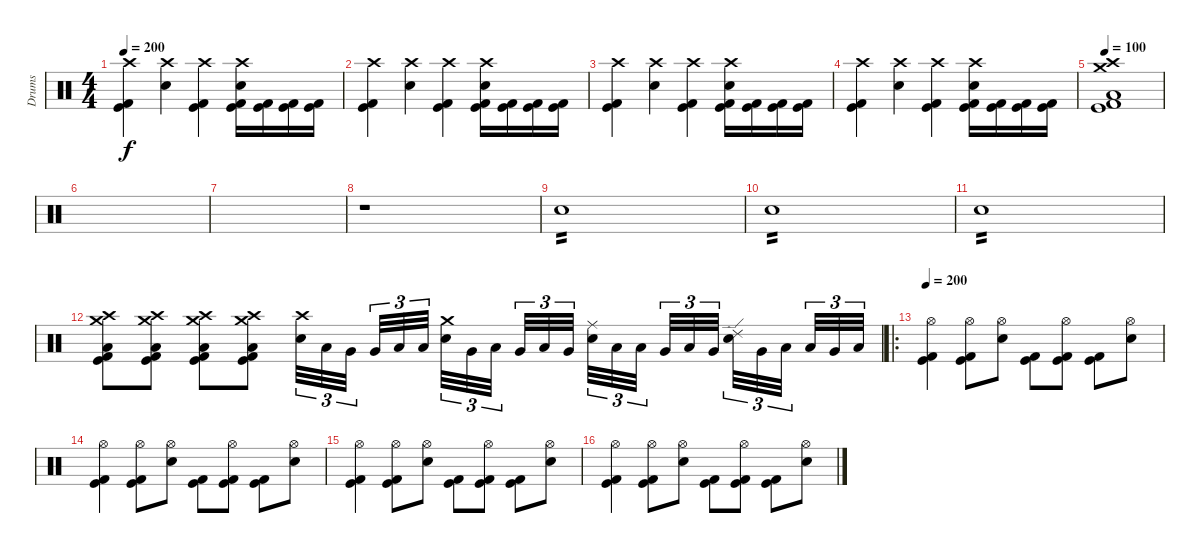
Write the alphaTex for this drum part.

\track ("Drums" "Drums") {instrument percussion}
\staff {score}
\articulation defaults
\ts (4 4)
\tempo 200
\clef neutral
\ks c
("Crash high (hit)" "Kick (hit) 2" "Kick (hit)").4{dy f} ("Crash high (hit)" "Electric Snare (hit)").4 ("Crash high (hit)" "Kick (hit) 2" "Kick (hit)").4 ("Crash high (hit)" "Kick (hit)" "Kick (hit) 2" "Electric Snare (hit)").16 ("Kick (hit)" "Kick (hit) 2").16 ("Kick (hit)" "Kick (hit) 2").16 ("Kick (hit)" "Kick (hit) 2").16 |
("Crash high (hit)" "Kick (hit) 2" "Kick (hit)").4 ("Crash high (hit)" "Electric Snare (hit)").4 ("Crash high (hit)" "Kick (hit) 2" "Kick (hit)").4 ("Crash high (hit)" "Kick (hit)" "Kick (hit) 2" "Electric Snare (hit)").16 ("Kick (hit)" "Kick (hit) 2").16 ("Kick (hit)" "Kick (hit) 2").16 ("Kick (hit)" "Kick (hit) 2").16 |
("Crash high (hit)" "Kick (hit) 2" "Kick (hit)").4 ("Crash high (hit)" "Electric Snare (hit)").4 ("Crash high (hit)" "Kick (hit) 2" "Kick (hit)").4 ("Crash high (hit)" "Kick (hit)" "Kick (hit) 2" "Electric Snare (hit)").16 ("Kick (hit)" "Kick (hit) 2").16 ("Kick (hit)" "Kick (hit) 2").16 ("Kick (hit)" "Kick (hit) 2").16 |
("Crash high (hit)" "Kick (hit) 2" "Kick (hit)").4 ("Crash high (hit)" "Electric Snare (hit)").4 ("Crash high (hit)" "Kick (hit) 2" "Kick (hit)").4 ("Crash high (hit)" "Kick (hit)" "Kick (hit) 2" "Electric Snare (hit)").16 ("Kick (hit)" "Kick (hit) 2").16 ("Kick (hit)" "Kick (hit) 2").16 ("Kick (hit)" "Kick (hit) 2").16 |
\tempo 100
("Low Floor Tom (hit)" "Crash medium (hit)" "Crash high (hit)" "Kick (hit) 2" "Kick (hit)").1 |
|
|
r.1{volume 0} |
"Electric Snare (hit)".1{tp 2 volume 13} |
"Electric Snare (hit)".1{tp 2} |
"Electric Snare (hit)".1{tp 2} |
("Low Floor Tom (hit)" "Crash medium (hit)" "Crash high (hit)" "Kick (hit) 2" "Kick (hit)").8 ("Low Floor Tom (hit)" "Crash medium (hit)" "Crash high (hit)" "Kick (hit) 2" "Kick (hit)").8 ("Low Floor Tom (hit)" "Crash medium (hit)" "Crash high (hit)" "Kick (hit) 2" "Kick (hit)").8 ("Low Floor Tom (hit)" "Crash medium (hit)" "Crash high (hit)" "Kick (hit) 2" "Kick (hit)").8 ("Crash high (hit)" "Electric Snare (hit)").32{tu (3 2)} "Low Tom (hit)".32{tu (3 2)} "Very Low Tom (hit)".32{tu (3 2) beam splitsecondary} "Very Low Tom (hit)".32{tu (3 2)} "Low Tom (hit)".32{tu (3 2)} "Low Floor Tom (hit)".32{tu (3 2) beam splitsecondary} ("Crash medium (hit)" "Electric Snare (hit)").32{tu (3 2)} "Very Low Tom (hit)".32{tu (3 2)} "Low Floor Tom (hit)".32{tu (3 2) beam splitsecondary} "Very Low Tom (hit)".32{tu (3 2)} "Low Tom (hit)".32{tu (3 2)} "Very Low Tom (hit)".32{tu (3 2)} ("Ride (middle)" "Electric Snare (hit)").32{tu (3 2)} "Low Tom (hit)".32{tu (3 2)} "Low Floor Tom (hit)".32{tu (3 2) beam splitsecondary} "Very Low Tom (hit)".32{tu (3 2)} "Low Tom (hit)".32{tu (3 2)} "Very Low Tom (hit)".32{tu (3 2) beam splitsecondary} ("Ride (edge) 2" "Electric Snare (hit)").32{tu (3 2)} "Very Low Tom (hit)".32{tu (3 2)} "Low Floor Tom (hit)".32{tu (3 2) beam splitsecondary} "Low Tom (hit)".32{tu (3 2)} "Very Low Tom (hit)".32{tu (3 2)} "Low Floor Tom (hit)".32{tu (3 2)} |
\ro
\tempo 200
("Hi-Hat (open)" "Kick (hit) 2" "Kick (hit)").4 ("Hi-Hat (open)" "Kick (hit) 2" "Kick (hit)").8 ("Hi-Hat (open)" "Electric Snare (hit)").8 ("Kick (hit) 2" "Kick (hit)").8 ("Hi-Hat (open)" "Kick (hit) 2" "Kick (hit)").8 ("Kick (hit) 2" "Kick (hit)").8 ("Hi-Hat (open)" "Electric Snare (hit)").8 |
("Hi-Hat (open)" "Kick (hit) 2" "Kick (hit)").4 ("Hi-Hat (open)" "Kick (hit) 2" "Kick (hit)").8 ("Hi-Hat (open)" "Electric Snare (hit)").8 ("Kick (hit) 2" "Kick (hit)").8 ("Hi-Hat (open)" "Kick (hit) 2" "Kick (hit)").8 ("Kick (hit) 2" "Kick (hit)").8 ("Hi-Hat (open)" "Electric Snare (hit)").8 |
("Hi-Hat (open)" "Kick (hit) 2" "Kick (hit)").4 ("Hi-Hat (open)" "Kick (hit) 2" "Kick (hit)").8 ("Hi-Hat (open)" "Electric Snare (hit)").8 ("Kick (hit) 2" "Kick (hit)").8 ("Hi-Hat (open)" "Kick (hit) 2" "Kick (hit)").8 ("Kick (hit) 2" "Kick (hit)").8 ("Hi-Hat (open)" "Electric Snare (hit)").8 |
("Hi-Hat (open)" "Kick (hit) 2" "Kick (hit)").4 ("Hi-Hat (open)" "Kick (hit) 2" "Kick (hit)").8 ("Hi-Hat (open)" "Electric Snare (hit)").8 ("Kick (hit) 2" "Kick (hit)").8 ("Hi-Hat (open)" "Kick (hit) 2" "Kick (hit)").8 ("Kick (hit) 2" "Kick (hit)").8 ("Hi-Hat (open)" "Electric Snare (hit)").8
